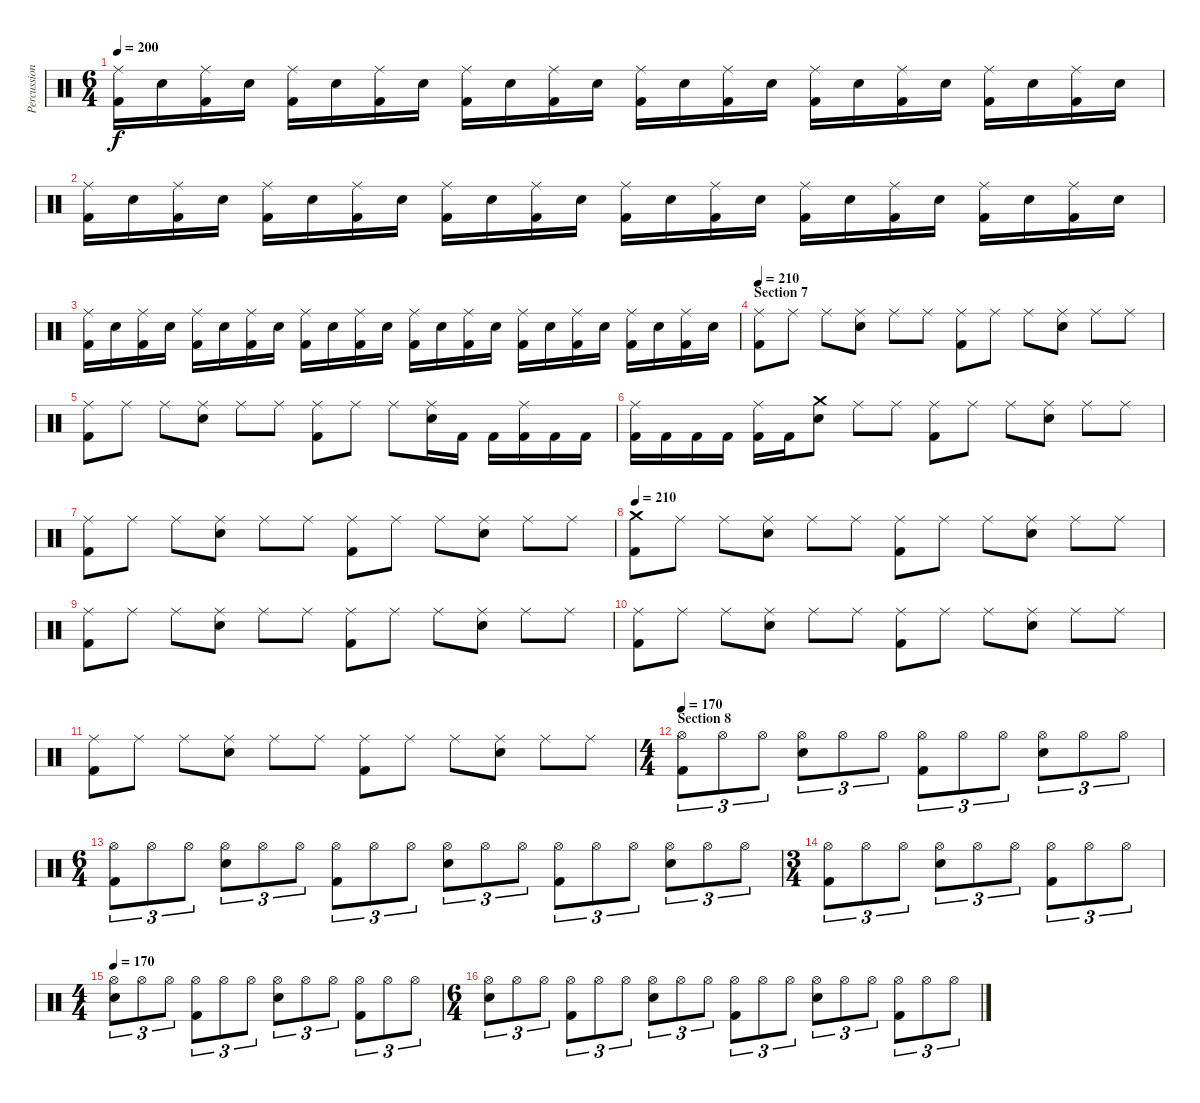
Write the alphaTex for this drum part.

\track ("Percussion" "Percussion") {instrument percussion}
\staff {score}
\articulation defaults
\ts (6 4)
\tempo 200
\clef neutral
\ks c
("Ride (middle)" "Kick (hit) 2").16{dy f} "Electric Snare (hit)".16 ("Ride (middle)" "Kick (hit) 2").16 "Electric Snare (hit)".16 ("Ride (middle)" "Kick (hit) 2").16 "Electric Snare (hit)".16 ("Ride (middle)" "Kick (hit) 2").16 "Electric Snare (hit)".16 ("Ride (middle)" "Kick (hit) 2").16 "Electric Snare (hit)".16 ("Ride (middle)" "Kick (hit) 2").16 "Electric Snare (hit)".16 ("Ride (middle)" "Kick (hit) 2").16 "Electric Snare (hit)".16 ("Ride (middle)" "Kick (hit) 2").16 "Electric Snare (hit)".16 ("Ride (middle)" "Kick (hit) 2").16 "Electric Snare (hit)".16 ("Ride (middle)" "Kick (hit) 2").16 "Electric Snare (hit)".16 ("Ride (middle)" "Kick (hit) 2").16 "Electric Snare (hit)".16 ("Ride (middle)" "Kick (hit) 2").16 "Electric Snare (hit)".16 |
("Ride (middle)" "Kick (hit) 2").16 "Electric Snare (hit)".16 ("Ride (middle)" "Kick (hit) 2").16 "Electric Snare (hit)".16 ("Ride (middle)" "Kick (hit) 2").16 "Electric Snare (hit)".16 ("Ride (middle)" "Kick (hit) 2").16 "Electric Snare (hit)".16 ("Ride (middle)" "Kick (hit) 2").16 "Electric Snare (hit)".16 ("Ride (middle)" "Kick (hit) 2").16 "Electric Snare (hit)".16 ("Ride (middle)" "Kick (hit) 2").16 "Electric Snare (hit)".16 ("Ride (middle)" "Kick (hit) 2").16 "Electric Snare (hit)".16 ("Ride (middle)" "Kick (hit) 2").16 "Electric Snare (hit)".16 ("Ride (middle)" "Kick (hit) 2").16 "Electric Snare (hit)".16 ("Ride (middle)" "Kick (hit) 2").16 "Electric Snare (hit)".16 ("Ride (middle)" "Kick (hit) 2").16 "Electric Snare (hit)".16 |
("Ride (middle)" "Kick (hit) 2").16 "Electric Snare (hit)".16 ("Ride (middle)" "Kick (hit) 2").16 "Electric Snare (hit)".16 ("Ride (middle)" "Kick (hit) 2").16 "Electric Snare (hit)".16 ("Ride (middle)" "Kick (hit) 2").16 "Electric Snare (hit)".16 ("Ride (middle)" "Kick (hit) 2").16 "Electric Snare (hit)".16 ("Ride (middle)" "Kick (hit) 2").16 "Electric Snare (hit)".16 ("Ride (middle)" "Kick (hit) 2").16 "Electric Snare (hit)".16 ("Ride (middle)" "Kick (hit) 2").16 "Electric Snare (hit)".16 ("Ride (middle)" "Kick (hit) 2").16 "Electric Snare (hit)".16 ("Ride (middle)" "Kick (hit) 2").16 "Electric Snare (hit)".16 ("Ride (middle)" "Kick (hit) 2").16 "Electric Snare (hit)".16 ("Ride (middle)" "Kick (hit) 2").16 "Electric Snare (hit)".16 |
\section ("" "Section 7")
\tempo 210
("Ride (middle)" "Kick (hit) 2").8 "Ride (middle)".8 "Ride (middle)".8 ("Ride (middle)" "Electric Snare (hit)").8 "Ride (middle)".8 "Ride (middle)".8 ("Ride (middle)" "Kick (hit) 2").8 "Ride (middle)".8 "Ride (middle)".8 ("Ride (middle)" "Electric Snare (hit)").8 "Ride (middle)".8 "Ride (middle)".8 |
("Ride (middle)" "Kick (hit) 2").8 "Ride (middle)".8 "Ride (middle)".8 ("Ride (middle)" "Electric Snare (hit)").8 "Ride (middle)".8 "Ride (middle)".8 ("Ride (middle)" "Kick (hit) 2").8 "Ride (middle)".8 "Ride (middle)".8 ("Ride (middle)" "Electric Snare (hit)").16 "Kick (hit) 2".16 "Kick (hit) 2".16 ("Ride (middle)" "Kick (hit) 2").16 "Kick (hit) 2".16 "Kick (hit) 2".16 |
("Ride (middle)" "Kick (hit) 2").16 "Kick (hit) 2".16 "Kick (hit) 2".16 "Kick (hit) 2".16 ("Ride (middle)" "Kick (hit) 2").16 "Kick (hit) 2".16 ("Crash medium (hit)" "Electric Snare (hit)").8 "Ride (middle)".8 "Ride (middle)".8 ("Ride (middle)" "Kick (hit) 2").8 "Ride (middle)".8 "Ride (middle)".8 ("Ride (middle)" "Electric Snare (hit)").8 "Ride (middle)".8 "Ride (middle)".8 |
("Ride (middle)" "Kick (hit) 2").8 "Ride (middle)".8 "Ride (middle)".8 ("Ride (middle)" "Electric Snare (hit)").8 "Ride (middle)".8 "Ride (middle)".8 ("Ride (middle)" "Kick (hit) 2").8 "Ride (middle)".8 "Ride (middle)".8 ("Ride (middle)" "Electric Snare (hit)").8 "Ride (middle)".8 "Ride (middle)".8 |
\tempo 210
("Crash medium (hit)" "Kick (hit) 2").8 "Ride (middle)".8 "Ride (middle)".8 ("Ride (middle)" "Electric Snare (hit)").8 "Ride (middle)".8 "Ride (middle)".8 ("Ride (middle)" "Kick (hit) 2").8 "Ride (middle)".8 "Ride (middle)".8 ("Ride (middle)" "Electric Snare (hit)").8 "Ride (middle)".8 "Ride (middle)".8 |
("Ride (middle)" "Kick (hit) 2").8 "Ride (middle)".8 "Ride (middle)".8 ("Ride (middle)" "Electric Snare (hit)").8 "Ride (middle)".8 "Ride (middle)".8 ("Ride (middle)" "Kick (hit) 2").8 "Ride (middle)".8 "Ride (middle)".8 ("Ride (middle)" "Electric Snare (hit)").8 "Ride (middle)".8 "Ride (middle)".8 |
("Ride (middle)" "Kick (hit) 2").8 "Ride (middle)".8 "Ride (middle)".8 ("Ride (middle)" "Electric Snare (hit)").8 "Ride (middle)".8 "Ride (middle)".8 ("Ride (middle)" "Kick (hit) 2").8 "Ride (middle)".8 "Ride (middle)".8 ("Ride (middle)" "Electric Snare (hit)").8 "Ride (middle)".8 "Ride (middle)".8 |
("Ride (middle)" "Kick (hit) 2").8 "Ride (middle)".8 "Ride (middle)".8 ("Ride (middle)" "Electric Snare (hit)").8 "Ride (middle)".8 "Ride (middle)".8 ("Ride (middle)" "Kick (hit) 2").8 "Ride (middle)".8 "Ride (middle)".8 ("Ride (middle)" "Electric Snare (hit)").8 "Ride (middle)".8 "Ride (middle)".8 |
\ts (4 4)
\section ("" "Section 8")
\tempo 170
("Hi-Hat (open)" "Kick (hit) 2").8{tu (3 2)} "Hi-Hat (open)".8{tu (3 2)} "Hi-Hat (open)".8{tu (3 2)} ("Hi-Hat (open)" "Electric Snare (hit)").8{tu (3 2)} "Hi-Hat (open)".8{tu (3 2)} "Hi-Hat (open)".8{tu (3 2)} ("Hi-Hat (open)" "Kick (hit) 2").8{tu (3 2)} "Hi-Hat (open)".8{tu (3 2)} "Hi-Hat (open)".8{tu (3 2)} ("Hi-Hat (open)" "Electric Snare (hit)").8{tu (3 2)} "Hi-Hat (open)".8{tu (3 2)} "Hi-Hat (open)".8{tu (3 2)} |
\ts (6 4)
("Hi-Hat (open)" "Kick (hit) 2").8{tu (3 2)} "Hi-Hat (open)".8{tu (3 2)} "Hi-Hat (open)".8{tu (3 2)} ("Hi-Hat (open)" "Electric Snare (hit)").8{tu (3 2)} "Hi-Hat (open)".8{tu (3 2)} "Hi-Hat (open)".8{tu (3 2)} ("Hi-Hat (open)" "Kick (hit) 2").8{tu (3 2)} "Hi-Hat (open)".8{tu (3 2)} "Hi-Hat (open)".8{tu (3 2)} ("Hi-Hat (open)" "Electric Snare (hit)").8{tu (3 2)} "Hi-Hat (open)".8{tu (3 2)} "Hi-Hat (open)".8{tu (3 2)} ("Hi-Hat (open)" "Kick (hit) 2").8{tu (3 2)} "Hi-Hat (open)".8{tu (3 2)} "Hi-Hat (open)".8{tu (3 2)} ("Hi-Hat (open)" "Electric Snare (hit)").8{tu (3 2)} "Hi-Hat (open)".8{tu (3 2)} "Hi-Hat (open)".8{tu (3 2)} |
\ts (3 4)
("Hi-Hat (open)" "Kick (hit) 2").8{tu (3 2)} "Hi-Hat (open)".8{tu (3 2)} "Hi-Hat (open)".8{tu (3 2)} ("Hi-Hat (open)" "Electric Snare (hit)").8{tu (3 2)} "Hi-Hat (open)".8{tu (3 2)} "Hi-Hat (open)".8{tu (3 2)} ("Hi-Hat (open)" "Kick (hit) 2").8{tu (3 2)} "Hi-Hat (open)".8{tu (3 2)} "Hi-Hat (open)".8{tu (3 2)} |
\ts (4 4)
\tempo 170
("Hi-Hat (open)" "Electric Snare (hit)").8{tu (3 2)} "Hi-Hat (open)".8{tu (3 2)} "Hi-Hat (open)".8{tu (3 2)} ("Hi-Hat (open)" "Kick (hit) 2").8{tu (3 2)} "Hi-Hat (open)".8{tu (3 2)} "Hi-Hat (open)".8{tu (3 2)} ("Hi-Hat (open)" "Electric Snare (hit)").8{tu (3 2)} "Hi-Hat (open)".8{tu (3 2)} "Hi-Hat (open)".8{tu (3 2)} ("Hi-Hat (open)" "Kick (hit) 2").8{tu (3 2)} "Hi-Hat (open)".8{tu (3 2)} "Hi-Hat (open)".8{tu (3 2)} |
\ts (6 4)
("Hi-Hat (open)" "Electric Snare (hit)").8{tu (3 2)} "Hi-Hat (open)".8{tu (3 2)} "Hi-Hat (open)".8{tu (3 2)} ("Hi-Hat (open)" "Kick (hit) 2").8{tu (3 2)} "Hi-Hat (open)".8{tu (3 2)} "Hi-Hat (open)".8{tu (3 2)} ("Hi-Hat (open)" "Electric Snare (hit)").8{tu (3 2)} "Hi-Hat (open)".8{tu (3 2)} "Hi-Hat (open)".8{tu (3 2)} ("Hi-Hat (open)" "Kick (hit) 2").8{tu (3 2)} "Hi-Hat (open)".8{tu (3 2)} "Hi-Hat (open)".8{tu (3 2)} ("Hi-Hat (open)" "Electric Snare (hit)").8{tu (3 2)} "Hi-Hat (open)".8{tu (3 2)} "Hi-Hat (open)".8{tu (3 2)} ("Hi-Hat (open)" "Kick (hit) 2").8{tu (3 2)} "Hi-Hat (open)".8{tu (3 2)} "Hi-Hat (open)".8{tu (3 2)}
